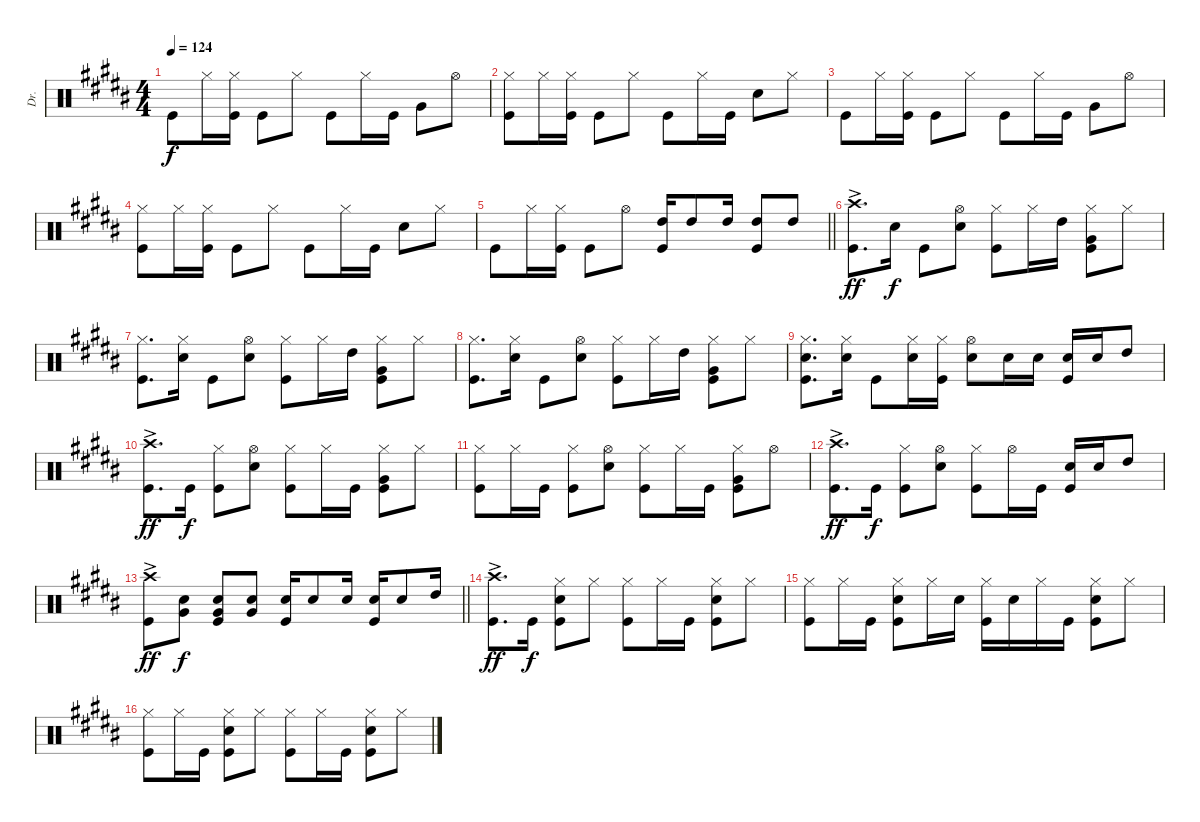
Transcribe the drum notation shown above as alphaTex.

\track ("Dr." "Dr.") {instrument percussion}
\staff {score}
\articulation defaults
\ts (4 4)
\tempo 124
\clef neutral
\ks b "Kick (hit)".8{dy f} "Hi-Hat (closed)".16
("Hi-Hat (closed)" "Kick (hit)").16 "Kick (hit)".8 "Hi-Hat (closed)".8 "Kick (hit)".8 "Hi-Hat (closed)".16 "Kick (hit)".16 "Very Low Tom (hit)".8 "Hi-Hat (open)".8 |
("Kick (hit)" "Hi-Hat (closed)").8 "Hi-Hat (closed)".16 ("Hi-Hat (closed)" "Kick (hit)").16 "Kick (hit)".8 "Hi-Hat (closed)".8 "Kick (hit)".8 "Hi-Hat (closed)".16 "Kick (hit)".16 "Snare (hit) 2".8 "Hi-Hat (closed)".8 |
"Kick (hit)".8 "Hi-Hat (closed)".16 ("Hi-Hat (closed)" "Kick (hit)").16 "Kick (hit)".8 "Hi-Hat (closed)".8 "Kick (hit)".8 "Hi-Hat (closed)".16 "Kick (hit)".16 "Very Low Tom (hit)".8 "Hi-Hat (open)".8 |
("Kick (hit)" "Hi-Hat (closed)").8 "Hi-Hat (closed)".16 ("Hi-Hat (closed)" "Kick (hit)").16 "Kick (hit)".8 "Hi-Hat (closed)".8 "Kick (hit)".8 "Hi-Hat (closed)".16 "Kick (hit)".16 "Snare (hit) 2".8 "Hi-Hat (closed)".8 |
\barLineRight lightlight "Kick (hit)".8 "Hi-Hat (closed)".16
("Hi-Hat (closed)" "Kick (hit)").16 "Kick (hit)".8 "Hi-Hat (open)".8 ("Kick (hit)" "High Tom (hit)").16 "High Tom (hit)".8 "High Tom (hit)".16 ("Kick (hit)" "High Tom (hit)").8 "High Tom (hit)".8 |
("Crash high (hit)"{ac} "Kick (hit)"{ac}).8{d dy ff} "Snare (hit) 2".16{dy f} "Kick (hit)".8 ("Snare (hit) 2" "Hi-Hat (open)").8 ("Hi-Hat (closed)" "Kick (hit)").8 "Hi-Hat (closed)".16 "High Tom (hit)".16 ("Hi-Hat (closed)" "Kick (hit)" "Very Low Tom (hit)").8 "Hi-Hat (closed)".8 |
("Hi-Hat (closed)" "Kick (hit)").8{d} ("Snare (hit) 2" "Hi-Hat (closed)").16 "Kick (hit)".8 ("Snare (hit) 2" "Hi-Hat (open)").8 ("Hi-Hat (closed)" "Kick (hit)").8 "Hi-Hat (closed)".16 "High Tom (hit)".16 ("Hi-Hat (closed)" "Very Low Tom (hit)" "Kick (hit)").8 "Hi-Hat (closed)".8 |
("Hi-Hat (closed)" "Kick (hit)").8{d} ("Snare (hit) 2" "Hi-Hat (closed)").16 "Kick (hit)".8 ("Snare (hit) 2" "Hi-Hat (open)").8 ("Hi-Hat (closed)" "Kick (hit)").8 "Hi-Hat (closed)".16 "High Tom (hit)".16 ("Hi-Hat (closed)" "Very Low Tom (hit)" "Kick (hit)").8 "Hi-Hat (closed)".8 |
("Hi-Hat (closed)" "Kick (hit)" "Snare (hit) 2").8{d} ("Snare (hit) 2" "Hi-Hat (closed)").16 "Kick (hit)".8 ("Snare (hit) 2" "Hi-Hat (closed)").16 ("Kick (hit)" "Hi-Hat (closed)").16 ("Hi-Hat (open)" "Snare (hit) 2").8 "Snare (hit) 2".16 "Snare (hit) 2".16 ("Snare (hit) 2" "Kick (hit)").16 "Snare (hit) 2".16 "High Tom (hit)".8 |
("Crash high (hit)"{ac} "Kick (hit)"{ac}).8{d dy ff} "Kick (hit)".16{dy f} ("Kick (hit)" "Hi-Hat (closed)").8 ("Hi-Hat (open)" "Snare (hit) 2").8 ("Hi-Hat (closed)" "Kick (hit)").8 "Hi-Hat (closed)".16 "Kick (hit)".16 ("Kick (hit)" "Hi-Hat (closed)" "Very Low Tom (hit)").8 "Hi-Hat (closed)".8 |
("Hi-Hat (closed)" "Kick (hit)").8 "Hi-Hat (closed)".16 "Kick (hit)".16 ("Kick (hit)" "Hi-Hat (closed)").8 ("Snare (hit) 2" "Hi-Hat (open)").8 ("Hi-Hat (closed)" "Kick (hit)").8 "Hi-Hat (closed)".16 "Kick (hit)".16 ("Kick (hit)" "Hi-Hat (closed)" "Very Low Tom (hit)").8 "Hi-Hat (open)".8 |
("Crash high (hit)"{ac} "Kick (hit)"{ac}).8{d dy ff} "Kick (hit)".16{dy f} ("Kick (hit)" "Hi-Hat (closed)").8 ("Hi-Hat (open)" "Snare (hit) 2").8 ("Hi-Hat (closed)" "Kick (hit)").8 "Hi-Hat (open)".16 "Kick (hit)".16 ("Kick (hit)" "Snare (hit) 2").16 "Snare (hit) 2".16 "High Tom (hit)".8 |
\barLineRight lightlight
("Crash high (hit)"{ac} "Kick (hit)"{ac}).8{dy ff} ("Snare (hit) 2" "Very Low Tom (hit)").8{dy f} ("Very Low Tom (hit)" "Snare (hit) 2" "Kick (hit)").8 ("Snare (hit) 2" "Very Low Tom (hit)").8 ("Snare (hit) 2" "Kick (hit)").16 "Snare (hit) 2".8 "Snare (hit) 2".16 ("Snare (hit) 2" "Kick (hit)").16 "Snare (hit) 2".8 "High Tom (hit)".16 |
("Crash high (hit)"{ac} "Kick (hit)"{ac}).8{d dy ff} "Kick (hit)".16{dy f} ("Kick (hit)" "Snare (hit) 2" "Hi-Hat (closed)").8 "Hi-Hat (closed)".8 ("Hi-Hat (closed)" "Kick (hit)").8 "Hi-Hat (closed)".16 "Kick (hit)".16 ("Hi-Hat (closed)" "Kick (hit)" "Snare (hit) 2").8 "Hi-Hat (closed)".8 |
("Hi-Hat (closed)" "Kick (hit)").8 "Hi-Hat (closed)".16 "Kick (hit)".16 ("Hi-Hat (closed)" "Kick (hit)" "Snare (hit) 2").8 "Hi-Hat (closed)".16 "Snare (hit) 2".16 ("Kick (hit)" "Hi-Hat (closed)").16 "Snare (hit) 2".16 "Hi-Hat (closed)".16 "Kick (hit)".16 ("Hi-Hat (closed)" "Kick (hit)" "Snare (hit) 2").8 "Hi-Hat (closed)".8 |
("Kick (hit)" "Hi-Hat (closed)").8 "Hi-Hat (closed)".16 "Kick (hit)".16 ("Kick (hit)" "Snare (hit) 2" "Hi-Hat (closed)").8 "Hi-Hat (closed)".8 ("Hi-Hat (closed)" "Kick (hit)").8 "Hi-Hat (closed)".16 "Kick (hit)".16 ("Hi-Hat (closed)" "Kick (hit)" "Snare (hit) 2").8 "Hi-Hat (closed)".8
